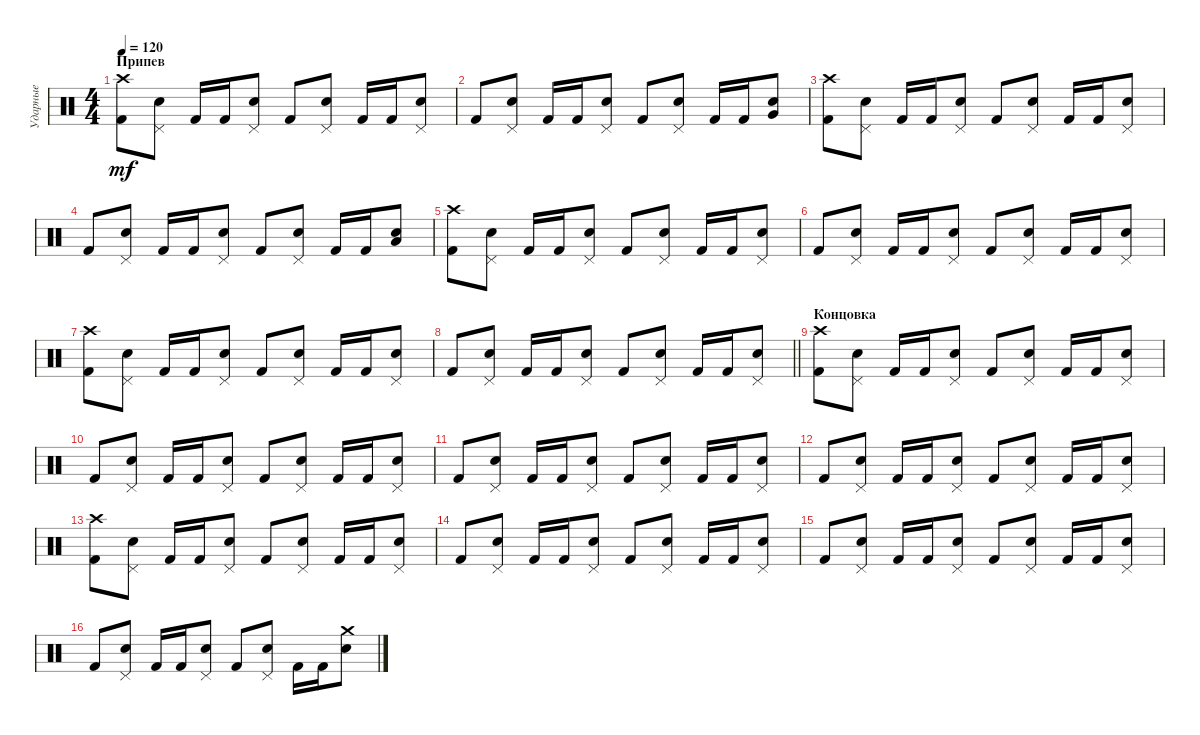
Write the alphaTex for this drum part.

\track ("Ударные" "Ударные") {instrument percussion}
\staff {score}
\articulation defaults
\ts (4 4)
\section ("" "Припев")
\tempo 120
\clef neutral
\ks c
("Crash high (hit)" "Kick (hit) 2").8{dy mf} ("Pedal Hi-Hat (hit)" "Electric Snare (hit)").8 "Kick (hit) 2".16 "Kick (hit) 2".16 ("Pedal Hi-Hat (hit)" "Electric Snare (hit)").8 "Kick (hit) 2".8 ("Pedal Hi-Hat (hit)" "Electric Snare (hit)").8 "Kick (hit) 2".16 "Kick (hit) 2".16 ("Pedal Hi-Hat (hit)" "Electric Snare (hit)").8 |
"Kick (hit) 2".8 ("Pedal Hi-Hat (hit)" "Electric Snare (hit)").8 "Kick (hit) 2".16 "Kick (hit) 2".16 ("Pedal Hi-Hat (hit)" "Electric Snare (hit)").8 "Kick (hit) 2".8 ("Pedal Hi-Hat (hit)" "Electric Snare (hit)").8 "Kick (hit) 2".16 "Kick (hit) 2".16 ("Very Low Tom (hit)" "Electric Snare (hit)").8 |
("Crash high (hit)" "Kick (hit) 2").8 ("Pedal Hi-Hat (hit)" "Electric Snare (hit)").8 "Kick (hit) 2".16 "Kick (hit) 2".16 ("Pedal Hi-Hat (hit)" "Electric Snare (hit)").8 "Kick (hit) 2".8 ("Pedal Hi-Hat (hit)" "Electric Snare (hit)").8 "Kick (hit) 2".16 "Kick (hit) 2".16 ("Pedal Hi-Hat (hit)" "Electric Snare (hit)").8 |
"Kick (hit) 2".8 ("Pedal Hi-Hat (hit)" "Electric Snare (hit)").8 "Kick (hit) 2".16 "Kick (hit) 2".16 ("Pedal Hi-Hat (hit)" "Electric Snare (hit)").8 "Kick (hit) 2".8 ("Pedal Hi-Hat (hit)" "Electric Snare (hit)").8 "Kick (hit) 2".16 "Kick (hit) 2".16 ("Low Tom (hit)" "Electric Snare (hit)").8 |
("Crash high (hit)" "Kick (hit) 2").8 ("Pedal Hi-Hat (hit)" "Electric Snare (hit)").8 "Kick (hit) 2".16 "Kick (hit) 2".16 ("Pedal Hi-Hat (hit)" "Electric Snare (hit)").8 "Kick (hit) 2".8 ("Pedal Hi-Hat (hit)" "Electric Snare (hit)").8 "Kick (hit) 2".16 "Kick (hit) 2".16 ("Pedal Hi-Hat (hit)" "Electric Snare (hit)").8 |
"Kick (hit) 2".8 ("Pedal Hi-Hat (hit)" "Electric Snare (hit)").8 "Kick (hit) 2".16 "Kick (hit) 2".16 ("Pedal Hi-Hat (hit)" "Electric Snare (hit)").8 "Kick (hit) 2".8 ("Pedal Hi-Hat (hit)" "Electric Snare (hit)").8 "Kick (hit) 2".16 "Kick (hit) 2".16 ("Pedal Hi-Hat (hit)" "Electric Snare (hit)").8 |
("Crash high (hit)" "Kick (hit) 2").8 ("Pedal Hi-Hat (hit)" "Electric Snare (hit)").8 "Kick (hit) 2".16 "Kick (hit) 2".16 ("Pedal Hi-Hat (hit)" "Electric Snare (hit)").8 "Kick (hit) 2".8 ("Pedal Hi-Hat (hit)" "Electric Snare (hit)").8 "Kick (hit) 2".16 "Kick (hit) 2".16 ("Pedal Hi-Hat (hit)" "Electric Snare (hit)").8 |
\barLineRight lightlight "Kick (hit) 2".8
("Pedal Hi-Hat (hit)" "Electric Snare (hit)").8 "Kick (hit) 2".16 "Kick (hit) 2".16 ("Pedal Hi-Hat (hit)" "Electric Snare (hit)").8 "Kick (hit) 2".8 ("Pedal Hi-Hat (hit)" "Electric Snare (hit)").8 "Kick (hit) 2".16 "Kick (hit) 2".16 ("Pedal Hi-Hat (hit)" "Electric Snare (hit)").8 |
\section ("" "Концовка")
("Crash high (hit)" "Kick (hit) 2").8 ("Pedal Hi-Hat (hit)" "Electric Snare (hit)").8 "Kick (hit) 2".16 "Kick (hit) 2".16 ("Pedal Hi-Hat (hit)" "Electric Snare (hit)").8 "Kick (hit) 2".8 ("Pedal Hi-Hat (hit)" "Electric Snare (hit)").8 "Kick (hit) 2".16 "Kick (hit) 2".16 ("Pedal Hi-Hat (hit)" "Electric Snare (hit)").8 |
"Kick (hit) 2".8 ("Pedal Hi-Hat (hit)" "Electric Snare (hit)").8 "Kick (hit) 2".16 "Kick (hit) 2".16 ("Pedal Hi-Hat (hit)" "Electric Snare (hit)").8 "Kick (hit) 2".8 ("Pedal Hi-Hat (hit)" "Electric Snare (hit)").8 "Kick (hit) 2".16 "Kick (hit) 2".16 ("Pedal Hi-Hat (hit)" "Electric Snare (hit)").8 |
"Kick (hit) 2".8 ("Pedal Hi-Hat (hit)" "Electric Snare (hit)").8 "Kick (hit) 2".16 "Kick (hit) 2".16 ("Pedal Hi-Hat (hit)" "Electric Snare (hit)").8 "Kick (hit) 2".8 ("Pedal Hi-Hat (hit)" "Electric Snare (hit)").8 "Kick (hit) 2".16 "Kick (hit) 2".16 ("Pedal Hi-Hat (hit)" "Electric Snare (hit)").8 |
"Kick (hit) 2".8 ("Pedal Hi-Hat (hit)" "Electric Snare (hit)").8 "Kick (hit) 2".16 "Kick (hit) 2".16 ("Pedal Hi-Hat (hit)" "Electric Snare (hit)").8 "Kick (hit) 2".8 ("Pedal Hi-Hat (hit)" "Electric Snare (hit)").8 "Kick (hit) 2".16 "Kick (hit) 2".16 ("Pedal Hi-Hat (hit)" "Electric Snare (hit)").8 |
("Crash high (hit)" "Kick (hit) 2").8 ("Pedal Hi-Hat (hit)" "Electric Snare (hit)").8 "Kick (hit) 2".16 "Kick (hit) 2".16 ("Pedal Hi-Hat (hit)" "Electric Snare (hit)").8 "Kick (hit) 2".8 ("Pedal Hi-Hat (hit)" "Electric Snare (hit)").8 "Kick (hit) 2".16 "Kick (hit) 2".16 ("Pedal Hi-Hat (hit)" "Electric Snare (hit)").8 |
"Kick (hit) 2".8 ("Pedal Hi-Hat (hit)" "Electric Snare (hit)").8 "Kick (hit) 2".16 "Kick (hit) 2".16 ("Pedal Hi-Hat (hit)" "Electric Snare (hit)").8 "Kick (hit) 2".8 ("Pedal Hi-Hat (hit)" "Electric Snare (hit)").8 "Kick (hit) 2".16 "Kick (hit) 2".16 ("Pedal Hi-Hat (hit)" "Electric Snare (hit)").8 |
"Kick (hit) 2".8 ("Pedal Hi-Hat (hit)" "Electric Snare (hit)").8 "Kick (hit) 2".16 "Kick (hit) 2".16 ("Pedal Hi-Hat (hit)" "Electric Snare (hit)").8 "Kick (hit) 2".8 ("Pedal Hi-Hat (hit)" "Electric Snare (hit)").8 "Kick (hit) 2".16 "Kick (hit) 2".16 ("Pedal Hi-Hat (hit)" "Electric Snare (hit)").8 |
"Kick (hit) 2".8 ("Pedal Hi-Hat (hit)" "Electric Snare (hit)").8 "Kick (hit) 2".16 "Kick (hit) 2".16 ("Pedal Hi-Hat (hit)" "Electric Snare (hit)").8 "Kick (hit) 2".8 ("Pedal Hi-Hat (hit)" "Electric Snare (hit)").8 "Kick (hit) 2".16 "Kick (hit) 2".16 ("Crash medium (hit)" "Electric Snare (hit)").8
